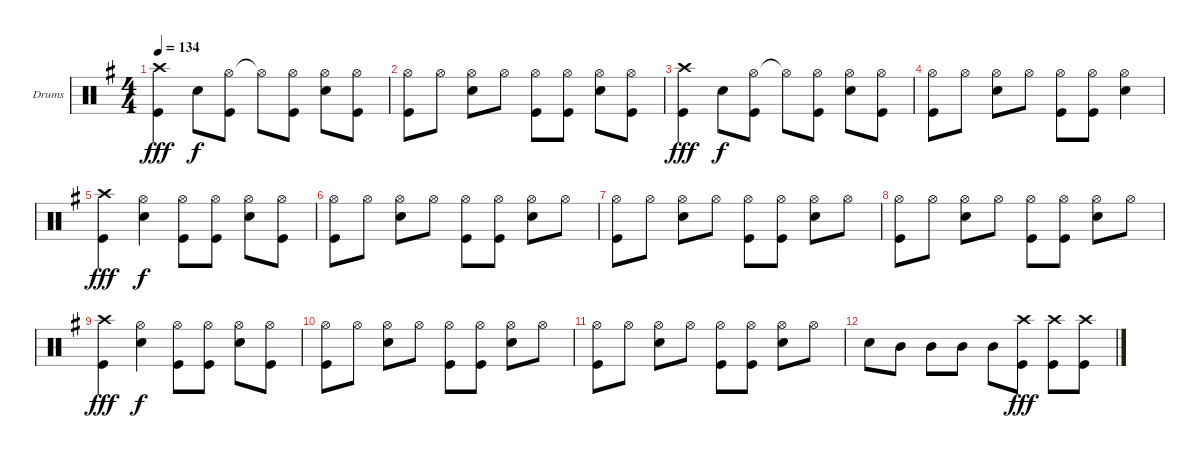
\defaultSystemsLayout 4
\bracketExtendMode groupsimilarinstruments
\firstSystemTrackNameOrientation horizontal
\otherSystemsTrackNameOrientation horizontal
\track ("Bobby Blotzer" "Drums") {instrument percussion}
\staff {score}
\articulation defaults
\ts (4 4)
\tempo 134
\clef neutral
\ks g
("Crash high (hit)" "Kick (hit)").4{dy fff} "Snare (hit) 2".8{dy f} ("Hi-Hat (open)" "Kick (hit)").8 "Hi-Hat (open)"{t}.8 ("Kick (hit)" "Hi-Hat (open)").8 ("Snare (hit) 2" "Hi-Hat (open)").8 ("Kick (hit)" "Hi-Hat (open)").8 |
("Hi-Hat (open)" "Kick (hit)").8 "Hi-Hat (open)".8 ("Hi-Hat (open)" "Snare (hit) 2").8 "Hi-Hat (open)".8 ("Hi-Hat (open)" "Kick (hit)").8 ("Hi-Hat (open)" "Kick (hit)").8 ("Hi-Hat (open)" "Snare (hit) 2").8 ("Hi-Hat (open)" "Kick (hit)").8 |
("Crash high (hit)" "Kick (hit)").4{dy fff} "Snare (hit) 2".8{dy f} ("Hi-Hat (open)" "Kick (hit)").8 "Hi-Hat (open)"{t}.8 ("Kick (hit)" "Hi-Hat (open)").8 ("Snare (hit) 2" "Hi-Hat (open)").8 ("Kick (hit)" "Hi-Hat (open)").8 |
("Hi-Hat (open)" "Kick (hit)").8 "Hi-Hat (open)".8 ("Hi-Hat (open)" "Snare (hit) 2").8 "Hi-Hat (open)".8 ("Hi-Hat (open)" "Kick (hit)").8 ("Hi-Hat (open)" "Kick (hit)").8 ("Hi-Hat (open)" "Snare (hit) 2").4 |
("Kick (hit)" "Crash high (hit)").4{dy fff} ("Hi-Hat (open)" "Snare (hit) 2").4{dy f} ("Kick (hit)" "Hi-Hat (open)").8 ("Kick (hit)" "Hi-Hat (open)").8 ("Snare (hit) 2" "Hi-Hat (open)").8 ("Kick (hit)" "Hi-Hat (open)").8 |
("Hi-Hat (open)" "Kick (hit)").8 "Hi-Hat (open)".8 ("Hi-Hat (open)" "Snare (hit) 2").8 "Hi-Hat (open)".8 ("Hi-Hat (open)" "Kick (hit)").8 ("Hi-Hat (open)" "Kick (hit)").8 ("Hi-Hat (open)" "Snare (hit) 2").8 "Hi-Hat (open)".8 |
("Hi-Hat (open)" "Kick (hit)").8 "Hi-Hat (open)".8 ("Hi-Hat (open)" "Snare (hit) 2").8 "Hi-Hat (open)".8 ("Hi-Hat (open)" "Kick (hit)").8 ("Hi-Hat (open)" "Kick (hit)").8 ("Hi-Hat (open)" "Snare (hit) 2").8 "Hi-Hat (open)".8 |
("Hi-Hat (open)" "Kick (hit)").8 "Hi-Hat (open)".8 ("Hi-Hat (open)" "Snare (hit) 2").8 "Hi-Hat (open)".8 ("Hi-Hat (open)" "Kick (hit)").8 ("Hi-Hat (open)" "Kick (hit)").8 ("Hi-Hat (open)" "Snare (hit) 2").8 "Hi-Hat (open)".8 |
("Kick (hit)" "Crash high (hit)").4{dy fff} ("Hi-Hat (open)" "Snare (hit) 2").4{dy f} ("Kick (hit)" "Hi-Hat (open)").8 ("Kick (hit)" "Hi-Hat (open)").8 ("Snare (hit) 2" "Hi-Hat (open)").8 ("Kick (hit)" "Hi-Hat (open)").8 |
("Hi-Hat (open)" "Kick (hit)").8 "Hi-Hat (open)".8 ("Hi-Hat (open)" "Snare (hit) 2").8 "Hi-Hat (open)".8 ("Hi-Hat (open)" "Kick (hit)").8 ("Hi-Hat (open)" "Kick (hit)").8 ("Hi-Hat (open)" "Snare (hit) 2").8 "Hi-Hat (open)".8 |
("Hi-Hat (open)" "Kick (hit)").8 "Hi-Hat (open)".8 ("Hi-Hat (open)" "Snare (hit) 2").8 "Hi-Hat (open)".8 ("Hi-Hat (open)" "Kick (hit)").8 ("Hi-Hat (open)" "Kick (hit)").8 ("Hi-Hat (open)" "Snare (hit) 2").8 "Hi-Hat (open)".8 |
"Snare (hit) 2".8 "Mid Tom (hit)".8 "Mid Tom (hit)".8 "Mid Tom (hit)".8 "Mid Tom (hit)".8 ("Kick (hit)" "Crash high (hit)").8{dy fff} ("Kick (hit)" "Crash high (hit)").8 ("Kick (hit)" "Crash high (hit)").8
